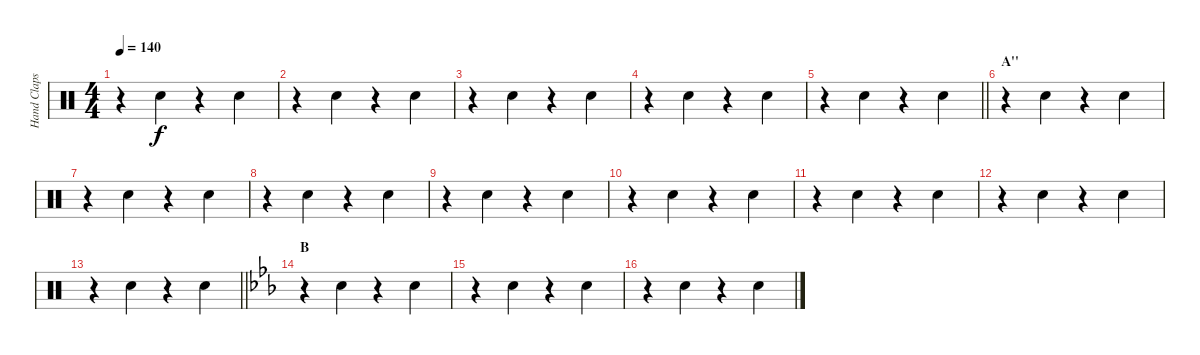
\track ("Hand Claps" "Hand Claps") {instrument percussion}
\staff {score}
\articulation defaults
\ts (4 4)
\tempo 140
\clef neutral
\ks c
r.4{dy f} "Hand Clap (hit)".4 r.4 "Hand Clap (hit)".4 |
r.4 "Hand Clap (hit)".4 r.4 "Hand Clap (hit)".4 |
r.4 "Hand Clap (hit)".4 r.4 "Hand Clap (hit)".4 |
r.4 "Hand Clap (hit)".4 r.4 "Hand Clap (hit)".4 |
\barLineRight lightlight
r.4 "Hand Clap (hit)".4 r.4 "Hand Clap (hit)".4 |
\section ("" "A''")
r.4 "Hand Clap (hit)".4 r.4 "Hand Clap (hit)".4 |
r.4 "Hand Clap (hit)".4 r.4 "Hand Clap (hit)".4 |
r.4 "Hand Clap (hit)".4 r.4 "Hand Clap (hit)".4 |
r.4 "Hand Clap (hit)".4 r.4 "Hand Clap (hit)".4 |
r.4 "Hand Clap (hit)".4 r.4 "Hand Clap (hit)".4 |
r.4 "Hand Clap (hit)".4 r.4 "Hand Clap (hit)".4 |
r.4 "Hand Clap (hit)".4 r.4 "Hand Clap (hit)".4 |
\barLineRight lightlight
r.4 "Hand Clap (hit)".4 r.4 "Hand Clap (hit)".4 |
\section ("" "B")
\ks eb
r.4 "Hand Clap (hit)".4 r.4 "Hand Clap (hit)".4 |
r.4 "Hand Clap (hit)".4 r.4 "Hand Clap (hit)".4 |
r.4 "Hand Clap (hit)".4 r.4 "Hand Clap (hit)".4
